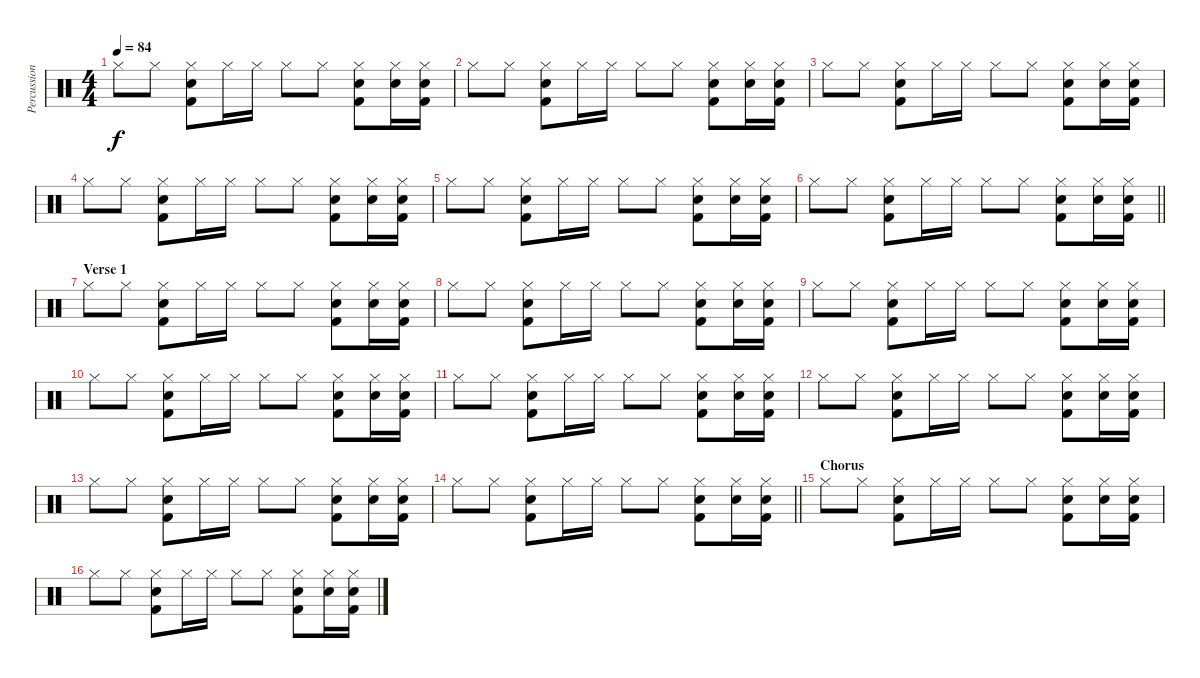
\track ("Percussion" "Percussion") {instrument percussion}
\staff {score}
\articulation defaults
\ts (4 4)
\tempo 84
\clef neutral
\ks c "Hi-Hat (closed)".8{dy f} "Hi-Hat (closed)".8
("Hi-Hat (closed)" "Snare (hit) 2" "Kick (hit) 2").8 "Hi-Hat (closed)".16 "Hi-Hat (closed)".16 "Hi-Hat (closed)".8 "Hi-Hat (closed)".8 ("Hi-Hat (closed)" "Snare (hit) 2" "Kick (hit) 2").8 ("Hi-Hat (closed)" "Snare (hit) 2").16 ("Hi-Hat (closed)" "Snare (hit) 2" "Kick (hit) 2").16 |
"Hi-Hat (closed)".8 "Hi-Hat (closed)".8 ("Hi-Hat (closed)" "Snare (hit) 2" "Kick (hit) 2").8 "Hi-Hat (closed)".16 "Hi-Hat (closed)".16 "Hi-Hat (closed)".8 "Hi-Hat (closed)".8 ("Hi-Hat (closed)" "Snare (hit) 2" "Kick (hit) 2").8 ("Hi-Hat (closed)" "Snare (hit) 2").16 ("Hi-Hat (closed)" "Snare (hit) 2" "Kick (hit) 2").16 |
"Hi-Hat (closed)".8 "Hi-Hat (closed)".8 ("Hi-Hat (closed)" "Snare (hit) 2" "Kick (hit) 2").8 "Hi-Hat (closed)".16 "Hi-Hat (closed)".16 "Hi-Hat (closed)".8 "Hi-Hat (closed)".8 ("Hi-Hat (closed)" "Snare (hit) 2" "Kick (hit) 2").8 ("Hi-Hat (closed)" "Snare (hit) 2").16 ("Hi-Hat (closed)" "Snare (hit) 2" "Kick (hit) 2").16 |
"Hi-Hat (closed)".8 "Hi-Hat (closed)".8 ("Hi-Hat (closed)" "Snare (hit) 2" "Kick (hit) 2").8 "Hi-Hat (closed)".16 "Hi-Hat (closed)".16 "Hi-Hat (closed)".8 "Hi-Hat (closed)".8 ("Hi-Hat (closed)" "Snare (hit) 2" "Kick (hit) 2").8 ("Hi-Hat (closed)" "Snare (hit) 2").16 ("Hi-Hat (closed)" "Snare (hit) 2" "Kick (hit) 2").16 |
"Hi-Hat (closed)".8 "Hi-Hat (closed)".8 ("Hi-Hat (closed)" "Snare (hit) 2" "Kick (hit) 2").8 "Hi-Hat (closed)".16 "Hi-Hat (closed)".16 "Hi-Hat (closed)".8 "Hi-Hat (closed)".8 ("Hi-Hat (closed)" "Snare (hit) 2" "Kick (hit) 2").8 ("Hi-Hat (closed)" "Snare (hit) 2").16 ("Hi-Hat (closed)" "Snare (hit) 2" "Kick (hit) 2").16 |
\barLineRight lightlight "Hi-Hat (closed)".8 "Hi-Hat (closed)".8
("Hi-Hat (closed)" "Snare (hit) 2" "Kick (hit) 2").8 "Hi-Hat (closed)".16 "Hi-Hat (closed)".16 "Hi-Hat (closed)".8 "Hi-Hat (closed)".8 ("Hi-Hat (closed)" "Snare (hit) 2" "Kick (hit) 2").8 ("Hi-Hat (closed)" "Snare (hit) 2").16 ("Hi-Hat (closed)" "Snare (hit) 2" "Kick (hit) 2").16 |
\section ("" "Verse 1")
"Hi-Hat (closed)".8 "Hi-Hat (closed)".8 ("Hi-Hat (closed)" "Snare (hit) 2" "Kick (hit) 2").8 "Hi-Hat (closed)".16 "Hi-Hat (closed)".16 "Hi-Hat (closed)".8 "Hi-Hat (closed)".8 ("Hi-Hat (closed)" "Snare (hit) 2" "Kick (hit) 2").8 ("Hi-Hat (closed)" "Snare (hit) 2").16 ("Hi-Hat (closed)" "Snare (hit) 2" "Kick (hit) 2").16 |
"Hi-Hat (closed)".8 "Hi-Hat (closed)".8 ("Hi-Hat (closed)" "Snare (hit) 2" "Kick (hit) 2").8 "Hi-Hat (closed)".16 "Hi-Hat (closed)".16 "Hi-Hat (closed)".8 "Hi-Hat (closed)".8 ("Hi-Hat (closed)" "Snare (hit) 2" "Kick (hit) 2").8 ("Hi-Hat (closed)" "Snare (hit) 2").16 ("Hi-Hat (closed)" "Snare (hit) 2" "Kick (hit) 2").16 |
"Hi-Hat (closed)".8 "Hi-Hat (closed)".8 ("Hi-Hat (closed)" "Snare (hit) 2" "Kick (hit) 2").8 "Hi-Hat (closed)".16 "Hi-Hat (closed)".16 "Hi-Hat (closed)".8 "Hi-Hat (closed)".8 ("Hi-Hat (closed)" "Snare (hit) 2" "Kick (hit) 2").8 ("Hi-Hat (closed)" "Snare (hit) 2").16 ("Hi-Hat (closed)" "Snare (hit) 2" "Kick (hit) 2").16 |
"Hi-Hat (closed)".8 "Hi-Hat (closed)".8 ("Hi-Hat (closed)" "Snare (hit) 2" "Kick (hit) 2").8 "Hi-Hat (closed)".16 "Hi-Hat (closed)".16 "Hi-Hat (closed)".8 "Hi-Hat (closed)".8 ("Hi-Hat (closed)" "Snare (hit) 2" "Kick (hit) 2").8 ("Hi-Hat (closed)" "Snare (hit) 2").16 ("Hi-Hat (closed)" "Snare (hit) 2" "Kick (hit) 2").16 |
"Hi-Hat (closed)".8 "Hi-Hat (closed)".8 ("Hi-Hat (closed)" "Snare (hit) 2" "Kick (hit) 2").8 "Hi-Hat (closed)".16 "Hi-Hat (closed)".16 "Hi-Hat (closed)".8 "Hi-Hat (closed)".8 ("Hi-Hat (closed)" "Snare (hit) 2" "Kick (hit) 2").8 ("Hi-Hat (closed)" "Snare (hit) 2").16 ("Hi-Hat (closed)" "Snare (hit) 2" "Kick (hit) 2").16 |
"Hi-Hat (closed)".8 "Hi-Hat (closed)".8 ("Hi-Hat (closed)" "Snare (hit) 2" "Kick (hit) 2").8 "Hi-Hat (closed)".16 "Hi-Hat (closed)".16 "Hi-Hat (closed)".8 "Hi-Hat (closed)".8 ("Hi-Hat (closed)" "Snare (hit) 2" "Kick (hit) 2").8 ("Hi-Hat (closed)" "Snare (hit) 2").16 ("Hi-Hat (closed)" "Snare (hit) 2" "Kick (hit) 2").16 |
"Hi-Hat (closed)".8 "Hi-Hat (closed)".8 ("Hi-Hat (closed)" "Snare (hit) 2" "Kick (hit) 2").8 "Hi-Hat (closed)".16 "Hi-Hat (closed)".16 "Hi-Hat (closed)".8 "Hi-Hat (closed)".8 ("Hi-Hat (closed)" "Snare (hit) 2" "Kick (hit) 2").8 ("Hi-Hat (closed)" "Snare (hit) 2").16 ("Hi-Hat (closed)" "Snare (hit) 2" "Kick (hit) 2").16 |
\barLineRight lightlight "Hi-Hat (closed)".8 "Hi-Hat (closed)".8
("Hi-Hat (closed)" "Snare (hit) 2" "Kick (hit) 2").8 "Hi-Hat (closed)".16 "Hi-Hat (closed)".16 "Hi-Hat (closed)".8 "Hi-Hat (closed)".8 ("Hi-Hat (closed)" "Snare (hit) 2" "Kick (hit) 2").8 ("Hi-Hat (closed)" "Snare (hit) 2").16 ("Hi-Hat (closed)" "Snare (hit) 2" "Kick (hit) 2").16 |
\section ("" "Chorus")
"Hi-Hat (closed)".8 "Hi-Hat (closed)".8 ("Hi-Hat (closed)" "Snare (hit) 2" "Kick (hit) 2").8 "Hi-Hat (closed)".16 "Hi-Hat (closed)".16 "Hi-Hat (closed)".8 "Hi-Hat (closed)".8 ("Hi-Hat (closed)" "Snare (hit) 2" "Kick (hit) 2").8 ("Hi-Hat (closed)" "Snare (hit) 2").16 ("Hi-Hat (closed)" "Snare (hit) 2" "Kick (hit) 2").16 |
"Hi-Hat (closed)".8 "Hi-Hat (closed)".8 ("Hi-Hat (closed)" "Snare (hit) 2" "Kick (hit) 2").8 "Hi-Hat (closed)".16 "Hi-Hat (closed)".16 "Hi-Hat (closed)".8 "Hi-Hat (closed)".8 ("Hi-Hat (closed)" "Snare (hit) 2" "Kick (hit) 2").8 ("Hi-Hat (closed)" "Snare (hit) 2").16 ("Hi-Hat (closed)" "Snare (hit) 2" "Kick (hit) 2").16
